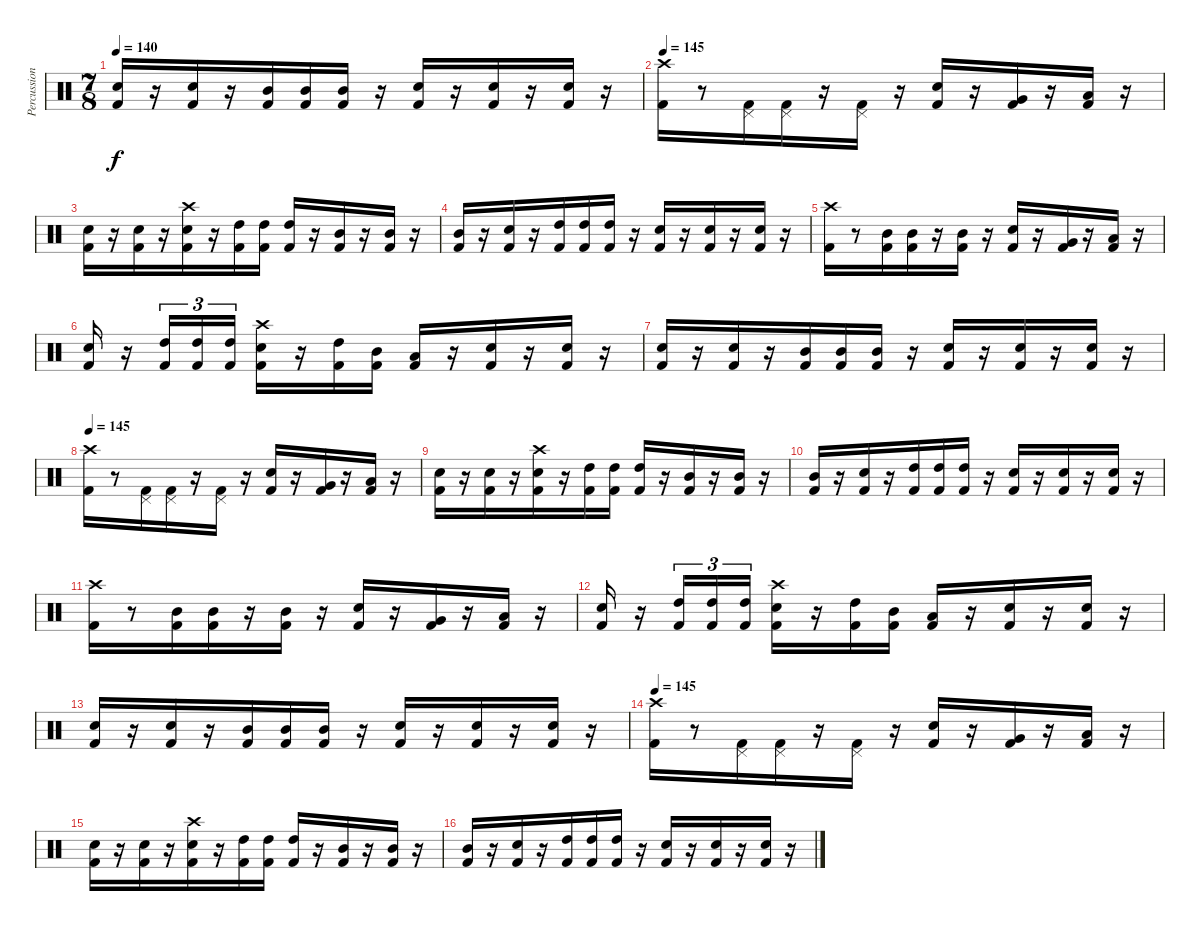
\track ("Percussion" "Percussion") {instrument percussion}
\staff {score}
\articulation defaults
\ts (7 8)
\tempo 140
\clef neutral
\ks c
("Snare (hit) 2" "Kick (hit) 2").16{dy f} r.16 ("Snare (hit) 2" "Kick (hit) 2").16 r.16 ("Mid Tom (hit)" "Kick (hit) 2").16 ("Mid Tom (hit)" "Kick (hit) 2").16 ("Mid Tom (hit)" "Kick (hit) 2").16 r.16 ("Snare (hit) 2" "Kick (hit) 2").16 r.16 ("Snare (hit) 2" "Kick (hit) 2").16 r.16 ("Snare (hit) 2" "Kick (hit) 2").16 r.16 |
\tempo 145
("Crash high (hit)" "Kick (hit) 2").16 r.8 ("Pedal Hi-Hat (hit)" "Kick (hit) 2").16 ("Pedal Hi-Hat (hit)" "Kick (hit) 2").16 r.16 ("Pedal Hi-Hat (hit)" "Kick (hit) 2").16 r.16 ("Snare (hit) 2" "Kick (hit) 2").16 r.16 ("Very Low Tom (hit)" "Kick (hit) 2").16 r.16 ("Low Tom (hit)" "Kick (hit) 2").16 r.16 |
("Snare (hit) 2" "Kick (hit) 2").16 r.16 ("Snare (hit) 2" "Kick (hit) 2").16 r.16 ("Crash high (hit)" "Snare (hit) 2" "Kick (hit) 2").16 r.16 ("High Tom (hit)" "Kick (hit) 2").16 ("High Tom (hit)" "Kick (hit) 2").16 ("High Tom (hit)" "Kick (hit) 2").16 r.16 ("Mid Tom (hit)" "Kick (hit) 2").16 r.16 ("Mid Tom (hit)" "Kick (hit) 2").16 r.16 |
("Mid Tom (hit)" "Kick (hit) 2").16 r.16 ("Snare (hit) 2" "Kick (hit) 2").16 r.16 ("High Tom (hit)" "Kick (hit) 2").16 ("High Tom (hit)" "Kick (hit) 2").16 ("High Tom (hit)" "Kick (hit) 2").16 r.16 ("Snare (hit) 2" "Kick (hit) 2").16 r.16 ("Snare (hit) 2" "Kick (hit) 2").16 r.16 ("Snare (hit) 2" "Kick (hit) 2").16 r.16 |
("Crash high (hit)" "Kick (hit) 2").16 r.8 ("Mid Tom (hit)" "Kick (hit) 2").16 ("Mid Tom (hit)" "Kick (hit) 2").16 r.16 ("Mid Tom (hit)" "Kick (hit) 2").16 r.16 ("Snare (hit) 2" "Kick (hit) 2").16 r.16 ("Very Low Tom (hit)" "Kick (hit) 2").16 r.16 ("Low Tom (hit)" "Kick (hit) 2").16 r.16 |
("Electric Snare (hit)" "Kick (hit) 2").16 r.16 ("High Tom (hit)" "Kick (hit) 2").16{tu (3 2)} ("High Tom (hit)" "Kick (hit) 2").16{tu (3 2)} ("High Tom (hit)" "Kick (hit) 2").16{tu (3 2)} ("Crash high (hit)" "Snare (hit) 2" "Kick (hit) 2").16 r.16 ("High Tom (hit)" "Kick (hit) 2").16 ("Mid Tom (hit)" "Kick (hit) 2").16 ("Low Tom (hit)" "Kick (hit) 2").16 r.16 ("Snare (hit) 2" "Kick (hit) 2").16 r.16 ("Snare (hit) 2" "Kick (hit) 2").16 r.16 |
("Snare (hit) 2" "Kick (hit) 2").16 r.16 ("Snare (hit) 2" "Kick (hit) 2").16 r.16 ("Mid Tom (hit)" "Kick (hit) 2").16 ("Mid Tom (hit)" "Kick (hit) 2").16 ("Mid Tom (hit)" "Kick (hit) 2").16 r.16 ("Snare (hit) 2" "Kick (hit) 2").16 r.16 ("Snare (hit) 2" "Kick (hit) 2").16 r.16 ("Snare (hit) 2" "Kick (hit) 2").16 r.16 |
\tempo 145
("Crash high (hit)" "Kick (hit) 2").16 r.8 ("Pedal Hi-Hat (hit)" "Kick (hit) 2").16 ("Pedal Hi-Hat (hit)" "Kick (hit) 2").16 r.16 ("Pedal Hi-Hat (hit)" "Kick (hit) 2").16 r.16 ("Snare (hit) 2" "Kick (hit) 2").16 r.16 ("Very Low Tom (hit)" "Kick (hit) 2").16 r.16 ("Low Tom (hit)" "Kick (hit) 2").16 r.16 |
("Snare (hit) 2" "Kick (hit) 2").16 r.16 ("Snare (hit) 2" "Kick (hit) 2").16 r.16 ("Crash high (hit)" "Snare (hit) 2" "Kick (hit) 2").16 r.16 ("High Tom (hit)" "Kick (hit) 2").16 ("High Tom (hit)" "Kick (hit) 2").16 ("High Tom (hit)" "Kick (hit) 2").16 r.16 ("Mid Tom (hit)" "Kick (hit) 2").16 r.16 ("Mid Tom (hit)" "Kick (hit) 2").16 r.16 |
("Mid Tom (hit)" "Kick (hit) 2").16 r.16 ("Snare (hit) 2" "Kick (hit) 2").16 r.16 ("High Tom (hit)" "Kick (hit) 2").16 ("High Tom (hit)" "Kick (hit) 2").16 ("High Tom (hit)" "Kick (hit) 2").16 r.16 ("Snare (hit) 2" "Kick (hit) 2").16 r.16 ("Snare (hit) 2" "Kick (hit) 2").16 r.16 ("Snare (hit) 2" "Kick (hit) 2").16 r.16 |
("Crash high (hit)" "Kick (hit) 2").16 r.8 ("Mid Tom (hit)" "Kick (hit) 2").16 ("Mid Tom (hit)" "Kick (hit) 2").16 r.16 ("Mid Tom (hit)" "Kick (hit) 2").16 r.16 ("Snare (hit) 2" "Kick (hit) 2").16 r.16 ("Very Low Tom (hit)" "Kick (hit) 2").16 r.16 ("Low Tom (hit)" "Kick (hit) 2").16 r.16 |
("Electric Snare (hit)" "Kick (hit) 2").16 r.16 ("High Tom (hit)" "Kick (hit) 2").16{tu (3 2)} ("High Tom (hit)" "Kick (hit) 2").16{tu (3 2)} ("High Tom (hit)" "Kick (hit) 2").16{tu (3 2)} ("Crash high (hit)" "Snare (hit) 2" "Kick (hit) 2").16 r.16 ("High Tom (hit)" "Kick (hit) 2").16 ("Mid Tom (hit)" "Kick (hit) 2").16 ("Low Tom (hit)" "Kick (hit) 2").16 r.16 ("Snare (hit) 2" "Kick (hit) 2").16 r.16 ("Snare (hit) 2" "Kick (hit) 2").16 r.16 |
("Snare (hit) 2" "Kick (hit) 2").16 r.16 ("Snare (hit) 2" "Kick (hit) 2").16 r.16 ("Mid Tom (hit)" "Kick (hit) 2").16 ("Mid Tom (hit)" "Kick (hit) 2").16 ("Mid Tom (hit)" "Kick (hit) 2").16 r.16 ("Snare (hit) 2" "Kick (hit) 2").16 r.16 ("Snare (hit) 2" "Kick (hit) 2").16 r.16 ("Snare (hit) 2" "Kick (hit) 2").16 r.16 |
\tempo 145
("Crash high (hit)" "Kick (hit) 2").16 r.8 ("Pedal Hi-Hat (hit)" "Kick (hit) 2").16 ("Pedal Hi-Hat (hit)" "Kick (hit) 2").16 r.16 ("Pedal Hi-Hat (hit)" "Kick (hit) 2").16 r.16 ("Snare (hit) 2" "Kick (hit) 2").16 r.16 ("Very Low Tom (hit)" "Kick (hit) 2").16 r.16 ("Low Tom (hit)" "Kick (hit) 2").16 r.16 |
("Snare (hit) 2" "Kick (hit) 2").16 r.16 ("Snare (hit) 2" "Kick (hit) 2").16 r.16 ("Crash high (hit)" "Snare (hit) 2" "Kick (hit) 2").16 r.16 ("High Tom (hit)" "Kick (hit) 2").16 ("High Tom (hit)" "Kick (hit) 2").16 ("High Tom (hit)" "Kick (hit) 2").16 r.16 ("Mid Tom (hit)" "Kick (hit) 2").16 r.16 ("Mid Tom (hit)" "Kick (hit) 2").16 r.16 |
("Mid Tom (hit)" "Kick (hit) 2").16 r.16 ("Snare (hit) 2" "Kick (hit) 2").16 r.16 ("High Tom (hit)" "Kick (hit) 2").16 ("High Tom (hit)" "Kick (hit) 2").16 ("High Tom (hit)" "Kick (hit) 2").16 r.16 ("Snare (hit) 2" "Kick (hit) 2").16 r.16 ("Snare (hit) 2" "Kick (hit) 2").16 r.16 ("Snare (hit) 2" "Kick (hit) 2").16 r.16
